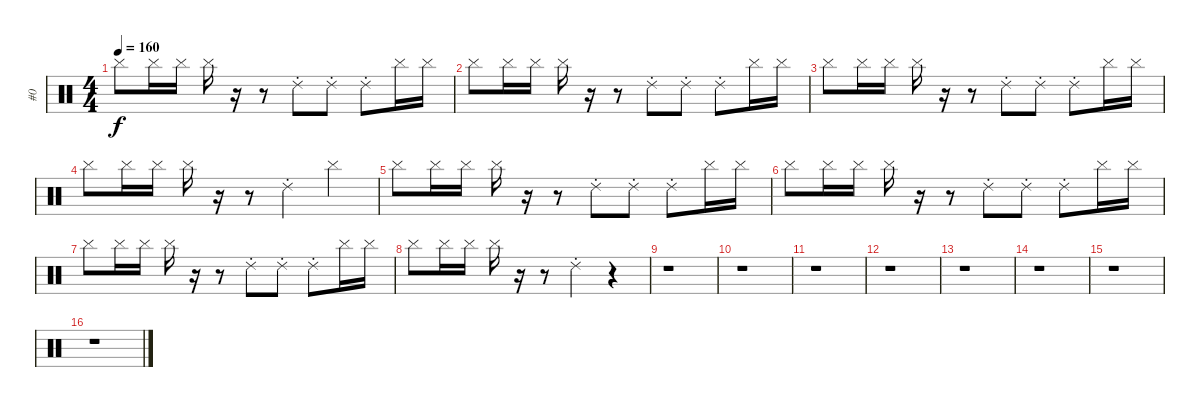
\track ("#0" "#0") {instrument percussion}
\staff {score}
\articulation defaults
\ts (4 4)
\tempo 160
\clef neutral
\ks c "Cymbal (hit)".8{dy f} "Cymbal (hit)".16 "Cymbal (hit)".16 "Cymbal (hit)".16
r.16 r.8 "Ride (choke) 2".8 "Ride (choke) 2".8 "Ride (choke) 2".8 "Cymbal (hit)".16 "Cymbal (hit)".16 |
"Cymbal (hit)".8 "Cymbal (hit)".16 "Cymbal (hit)".16 "Cymbal (hit)".16 r.16 r.8 "Ride (choke) 2".8 "Ride (choke) 2".8 "Ride (choke) 2".8 "Cymbal (hit)".16 "Cymbal (hit)".16 |
"Cymbal (hit)".8 "Cymbal (hit)".16 "Cymbal (hit)".16 "Cymbal (hit)".16 r.16 r.8 "Ride (choke) 2".8 "Ride (choke) 2".8 "Ride (choke) 2".8 "Cymbal (hit)".16 "Cymbal (hit)".16 |
"Cymbal (hit)".8 "Cymbal (hit)".16 "Cymbal (hit)".16 "Cymbal (hit)".16 r.16 r.8 "Ride (choke) 2".4 "Cymbal (hit)".4 |
"Cymbal (hit)".8 "Cymbal (hit)".16 "Cymbal (hit)".16 "Cymbal (hit)".16 r.16 r.8 "Ride (choke) 2".8 "Ride (choke) 2".8 "Ride (choke) 2".8 "Cymbal (hit)".16 "Cymbal (hit)".16 |
"Cymbal (hit)".8 "Cymbal (hit)".16 "Cymbal (hit)".16 "Cymbal (hit)".16 r.16 r.8 "Ride (choke) 2".8 "Ride (choke) 2".8 "Ride (choke) 2".8 "Cymbal (hit)".16 "Cymbal (hit)".16 |
"Cymbal (hit)".8 "Cymbal (hit)".16 "Cymbal (hit)".16 "Cymbal (hit)".16 r.16 r.8 "Ride (choke) 2".8 "Ride (choke) 2".8 "Ride (choke) 2".8 "Cymbal (hit)".16 "Cymbal (hit)".16 |
"Cymbal (hit)".8 "Cymbal (hit)".16 "Cymbal (hit)".16 "Cymbal (hit)".16 r.16 r.8 "Ride (choke) 2".4 r.4 |
r.1 |
r.1 |
r.1 |
r.1 |
r.1 |
r.1 |
r.1 |
r.1
